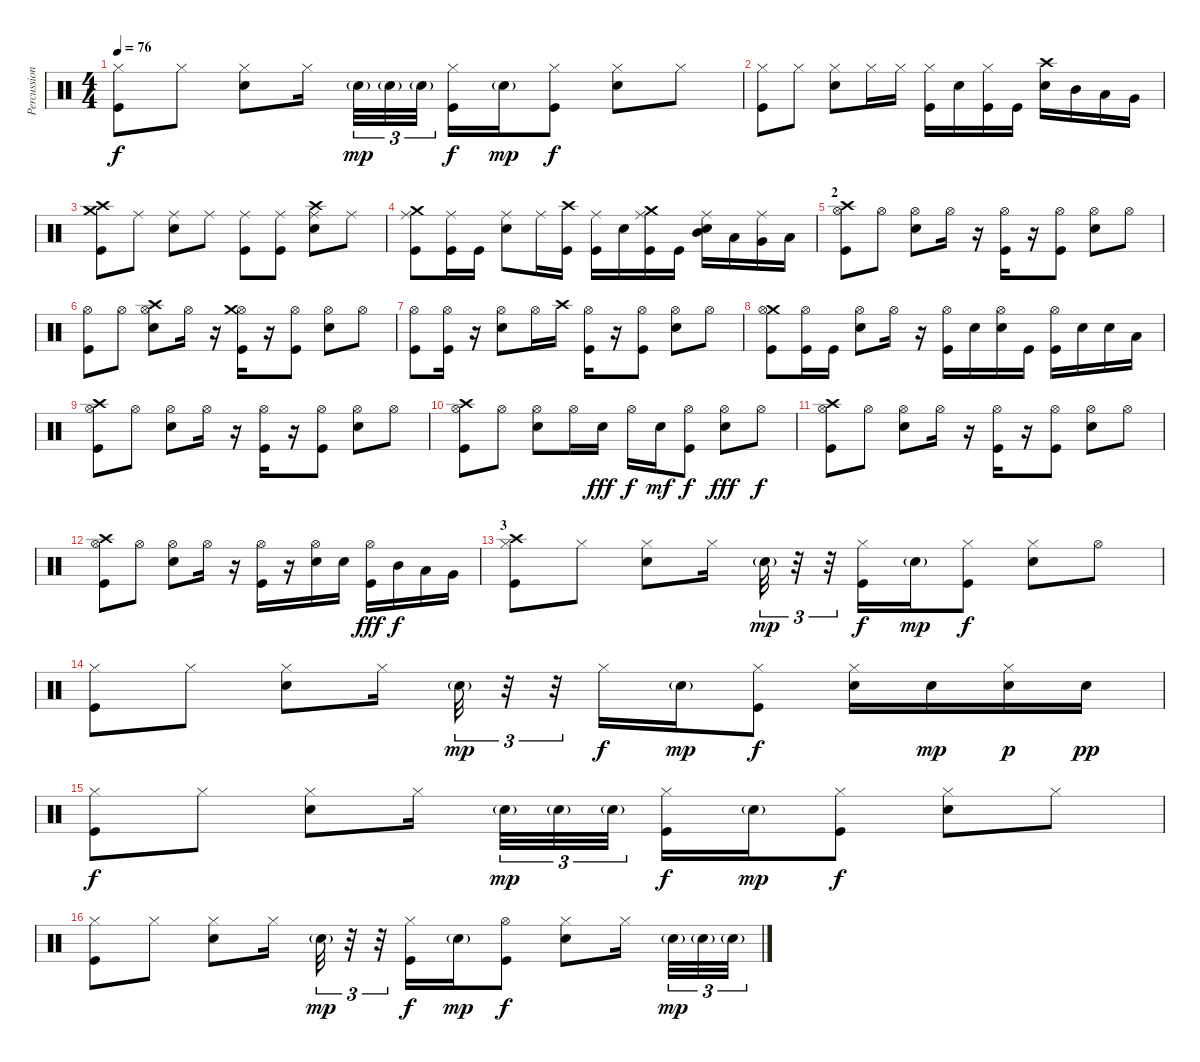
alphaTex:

\track ("Percussions" "Percussion") {instrument percussion}
\staff {score}
\articulation defaults
\ts (4 4)
\tempo 76
\clef neutral
\ks c
("Hi-Hat (closed)" "Kick (hit)").8{dy f} "Hi-Hat (closed)".8 ("Hi-Hat (closed)" "Snare (hit) 2").8 "Hi-Hat (closed)".16 "Snare (hit) 2"{g}.32{tu (3 2) dy mp} "Snare (hit) 2"{g}.32{tu (3 2)} "Snare (hit) 2"{g}.32{tu (3 2)} ("Hi-Hat (closed)" "Kick (hit)").16{dy f} "Snare (hit) 2"{g}.16{dy mp} ("Hi-Hat (closed)" "Kick (hit)").8{dy f} ("Hi-Hat (closed)" "Snare (hit) 2").8 "Hi-Hat (closed)".8 |
("Hi-Hat (closed)" "Kick (hit)").8 "Hi-Hat (closed)".8 ("Hi-Hat (closed)" "Snare (hit) 2").8 "Hi-Hat (closed)".16 "Hi-Hat (closed)".16 ("Hi-Hat (closed)" "Kick (hit)").16 "Snare (hit) 2".16 ("Hi-Hat (closed)" "Kick (hit)").16 "Kick (hit)".16 ("Crash high (hit)" "Snare (hit) 2").16 "Mid Tom (hit)".16 "Low Tom (hit)".16 "Very Low Tom (hit)".16 |
("Crash high (hit)" "Crash medium (hit)" "Kick (hit)").8 "Ride (middle)".8 ("Ride (middle)" "Snare (hit) 2").8 "Ride (middle)".8 ("Ride (middle)" "Kick (hit)").8 ("Ride (middle)" "Kick (hit)").8 ("Ride (middle)" "Crash high (hit)" "Snare (hit) 2").8 "Ride (middle)".8 |
("Ride (middle)" "Crash medium (hit)" "Kick (hit)").8 ("Ride (middle)" "Kick (hit)").16 "Kick (hit)".16 ("Ride (middle)" "Snare (hit) 2").8 "Ride (middle)".16 ("Crash high (hit)" "Kick (hit)").16 ("Ride (middle)" "Kick (hit)").16 "Snare (hit) 2".16 ("Ride (middle)" "Crash medium (hit)" "Kick (hit)").16 "Kick (hit)".16 ("Ride (middle)" "Mid Tom (hit)" "Snare (hit) 2").16 "Low Tom (hit)".16 ("Ride (middle)" "Very Low Tom (hit)").16 "Low Floor Tom (hit)".16 |
\section ("" "2")
("Crash high (hit)" "Hi-Hat (open)" "Kick (hit)").8 "Hi-Hat (open)".8 ("Hi-Hat (open)" "Snare (hit) 2").8 "Hi-Hat (open)".16 r.16 ("Hi-Hat (open)" "Kick (hit)").16 r.16 ("Hi-Hat (open)" "Kick (hit)").8 ("Hi-Hat (open)" "Snare (hit) 2").8 "Hi-Hat (open)".8 |
("Hi-Hat (open)" "Kick (hit)").8 "Hi-Hat (open)".8 ("Hi-Hat (open)" "Crash high (hit)" "Snare (hit) 2").8 "Hi-Hat (open)".16 r.16 ("Hi-Hat (open)" "Crash medium (hit)" "Kick (hit)").16 r.16 ("Hi-Hat (open)" "Kick (hit)").8 ("Hi-Hat (open)" "Snare (hit) 2").8 "Hi-Hat (open)".8 |
("Hi-Hat (open)" "Kick (hit)").8 ("Hi-Hat (open)" "Kick (hit)").16 r.16 ("Hi-Hat (open)" "Snare (hit) 2").8 "Hi-Hat (open)".16 "Crash high (hit)".16 ("Hi-Hat (open)" "Kick (hit)").16 r.16 ("Hi-Hat (open)" "Kick (hit)").8 ("Hi-Hat (open)" "Snare (hit) 2").8 "Hi-Hat (open)".8 |
("Crash medium (hit)" "Hi-Hat (open)" "Kick (hit)").8 ("Hi-Hat (open)" "Kick (hit)").16 "Kick (hit)".16 ("Hi-Hat (open)" "Snare (hit) 2").8 "Hi-Hat (open)".16 r.16 ("Hi-Hat (open)" "Kick (hit)").16 "Snare (hit) 2".16 ("Hi-Hat (open)" "Snare (hit) 2").16 "Kick (hit)".16 ("Hi-Hat (open)" "Kick (hit)").16 "Snare (hit) 2".16 "Snare (hit) 2".16 "Low Tom (hit)".16 |
("Crash high (hit)" "Hi-Hat (open)" "Kick (hit)").8 "Hi-Hat (open)".8 ("Hi-Hat (open)" "Snare (hit) 2").8 "Hi-Hat (open)".16 r.16 ("Hi-Hat (open)" "Kick (hit)").16 r.16 ("Hi-Hat (open)" "Kick (hit)").8 ("Hi-Hat (open)" "Snare (hit) 2").8 "Hi-Hat (open)".8 |
("Crash high (hit)" "Hi-Hat (open)" "Kick (hit)").8 "Hi-Hat (open)".8 ("Hi-Hat (open)" "Snare (hit) 2").8 "Hi-Hat (open)".16 "Snare (hit) 2".16{dy fff} "Hi-Hat (open)".16{dy f} "Snare (hit) 2".16{dy mf} ("Hi-Hat (open)" "Kick (hit)").8{dy f} ("Hi-Hat (open)" "Snare (hit) 2").8{dy fff} "Hi-Hat (open)".8{dy f} |
("Crash high (hit)" "Hi-Hat (open)" "Kick (hit)").8 "Hi-Hat (open)".8 ("Hi-Hat (open)" "Snare (hit) 2").8 "Hi-Hat (open)".16 r.16 ("Hi-Hat (open)" "Kick (hit)").16 r.16 ("Hi-Hat (open)" "Kick (hit)").8 ("Hi-Hat (open)" "Snare (hit) 2").8 "Hi-Hat (open)".8 |
("Crash high (hit)" "Hi-Hat (open)" "Kick (hit)").8 "Hi-Hat (open)".8 ("Hi-Hat (open)" "Snare (hit) 2").8 "Hi-Hat (open)".16 r.16 ("Hi-Hat (open)" "Kick (hit)").16 r.16 ("Hi-Hat (open)" "Snare (hit) 2").16 "Snare (hit) 2".16 ("Hi-Hat (open)" "Kick (hit)").16{dy fff} "Mid Tom (hit)".16{dy f} "Low Tom (hit)".16 "Very Low Tom (hit)".16 |
\section ("" "3")
("Crash high (hit)" "Hi-Hat (closed)" "Kick (hit)").8 "Hi-Hat (closed)".8 ("Hi-Hat (closed)" "Snare (hit) 2").8 "Hi-Hat (closed)".16 "Snare (hit) 2"{g}.32{tu (3 2) dy mp} r.32{tu (3 2)} r.32{tu (3 2)} ("Hi-Hat (closed)" "Kick (hit)").16{dy f} "Snare (hit) 2"{g}.16{dy mp} ("Hi-Hat (closed)" "Kick (hit)").8{dy f} ("Hi-Hat (closed)" "Snare (hit) 2").8 "Hi-Hat (open)".8 |
("Hi-Hat (closed)" "Kick (hit)").8 "Hi-Hat (closed)".8 ("Hi-Hat (closed)" "Snare (hit) 2").8 "Hi-Hat (closed)".16 "Snare (hit) 2"{g}.32{tu (3 2) dy mp} r.32{tu (3 2)} r.32{tu (3 2)} "Hi-Hat (closed)".16{dy f} "Snare (hit) 2"{g}.16{dy mp} ("Hi-Hat (closed)" "Kick (hit)").8{dy f} ("Hi-Hat (closed)" "Snare (hit) 2").16 "Snare (hit) 2".16{dy mp} ("Hi-Hat (closed)" "Snare (hit) 2").16{dy p} "Snare (hit) 2".16{dy pp} |
("Hi-Hat (closed)" "Kick (hit)").8{dy f} "Hi-Hat (closed)".8 ("Hi-Hat (closed)" "Snare (hit) 2").8 "Hi-Hat (closed)".16 "Snare (hit) 2"{g}.32{tu (3 2) dy mp} "Snare (hit) 2"{g}.32{tu (3 2)} "Snare (hit) 2"{g}.32{tu (3 2)} ("Hi-Hat (closed)" "Kick (hit)").16{dy f} "Snare (hit) 2"{g}.16{dy mp} ("Hi-Hat (closed)" "Kick (hit)").8{dy f} ("Hi-Hat (closed)" "Snare (hit) 2").8 "Hi-Hat (closed)".8 |
("Hi-Hat (closed)" "Kick (hit)").8 "Hi-Hat (closed)".8 ("Hi-Hat (closed)" "Snare (hit) 2").8 "Hi-Hat (closed)".16 "Snare (hit) 2"{g}.32{tu (3 2) dy mp} r.32{tu (3 2)} r.32{tu (3 2)} ("Hi-Hat (closed)" "Kick (hit)").16{dy f} "Snare (hit) 2"{g}.16{dy mp} ("Hi-Hat (open)" "Kick (hit)").8{dy f} ("Hi-Hat (closed)" "Snare (hit) 2").8 "Hi-Hat (closed)".16 "Snare (hit) 2"{g}.32{tu (3 2) dy mp} "Snare (hit) 2"{g}.32{tu (3 2)} "Snare (hit) 2"{g}.32{tu (3 2)}
